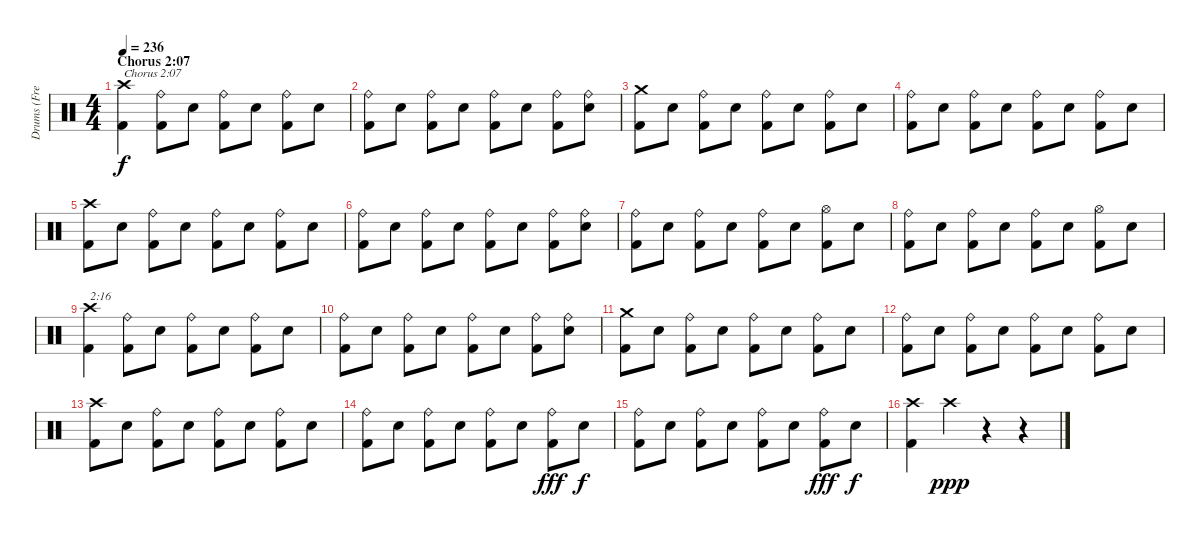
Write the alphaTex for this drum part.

\track ("Drums (Fred Estby)" "Drums (Fre") {instrument percussion}
\staff {score}
\articulation defaults
\ts (4 4)
\section ("" "Chorus 2:07")
\tempo 236
\clef neutral
\ks c
("Kick (hit) 2" "Crash high (hit)").4{txt "Chorus 2:07" dy f} ("Kick (hit) 2" "Ride (bell)").8 "Electric Snare (hit)".8 ("Kick (hit) 2" "Ride (bell)").8 "Electric Snare (hit)".8 ("Kick (hit) 2" "Ride (bell)").8 "Electric Snare (hit)".8 |
("Kick (hit) 2" "Ride (bell)").8 "Electric Snare (hit)".8 ("Kick (hit) 2" "Ride (bell)").8 "Electric Snare (hit)".8 ("Kick (hit) 2" "Ride (bell)").8 "Electric Snare (hit)".8 ("Kick (hit) 2" "Ride (bell)").8 ("Electric Snare (hit)" "Ride (bell)").8 |
("Kick (hit) 2" "Crash medium (hit)").8 "Electric Snare (hit)".8 ("Kick (hit) 2" "Ride (bell)").8 "Electric Snare (hit)".8 ("Kick (hit) 2" "Ride (bell)").8 "Electric Snare (hit)".8 ("Kick (hit) 2" "Ride (bell)").8 "Electric Snare (hit)".8 |
("Kick (hit) 2" "Ride (bell)").8 "Electric Snare (hit)".8 ("Kick (hit) 2" "Ride (bell)").8 "Electric Snare (hit)".8 ("Kick (hit) 2" "Ride (bell)").8 "Electric Snare (hit)".8 ("Kick (hit) 2" "Ride (bell)").8 "Electric Snare (hit)".8 |
("Kick (hit) 2" "Crash high (hit)").8 "Electric Snare (hit)".8 ("Kick (hit) 2" "Ride (bell)").8 "Electric Snare (hit)".8 ("Kick (hit) 2" "Ride (bell)").8 "Electric Snare (hit)".8 ("Kick (hit) 2" "Ride (bell)").8 "Electric Snare (hit)".8 |
("Kick (hit) 2" "Ride (bell)").8 "Electric Snare (hit)".8 ("Kick (hit) 2" "Ride (bell)").8 "Electric Snare (hit)".8 ("Kick (hit) 2" "Ride (bell)").8 "Electric Snare (hit)".8 ("Kick (hit) 2" "Ride (bell)").8 ("Electric Snare (hit)" "Ride (bell)").8 |
("Kick (hit) 2" "Ride (bell)").8 "Electric Snare (hit)".8 ("Kick (hit) 2" "Ride (bell)").8 "Electric Snare (hit)".8 ("Kick (hit) 2" "Ride (bell)").8 "Electric Snare (hit)".8 ("Kick (hit) 2" "Hi-Hat (open)").8 "Electric Snare (hit)".8 |
("Kick (hit) 2" "Ride (bell)").8 "Electric Snare (hit)".8 ("Kick (hit) 2" "Ride (bell)").8 "Electric Snare (hit)".8 ("Kick (hit) 2" "Ride (bell)").8 "Electric Snare (hit)".8 ("Kick (hit) 2" "Hi-Hat (open)").8 "Electric Snare (hit)".8 |
("Kick (hit) 2" "Crash high (hit)").4{txt "2:16"} ("Kick (hit) 2" "Ride (bell)").8 "Electric Snare (hit)".8 ("Kick (hit) 2" "Ride (bell)").8 "Electric Snare (hit)".8 ("Kick (hit) 2" "Ride (bell)").8 "Electric Snare (hit)".8 |
("Kick (hit) 2" "Ride (bell)").8 "Electric Snare (hit)".8 ("Kick (hit) 2" "Ride (bell)").8 "Electric Snare (hit)".8 ("Kick (hit) 2" "Ride (bell)").8 "Electric Snare (hit)".8 ("Kick (hit) 2" "Ride (bell)").8 ("Electric Snare (hit)" "Ride (bell)").8 |
("Kick (hit) 2" "Crash medium (hit)").8 "Electric Snare (hit)".8 ("Kick (hit) 2" "Ride (bell)").8 "Electric Snare (hit)".8 ("Kick (hit) 2" "Ride (bell)").8 "Electric Snare (hit)".8 ("Kick (hit) 2" "Ride (bell)").8 "Electric Snare (hit)".8 |
("Kick (hit) 2" "Ride (bell)").8 "Electric Snare (hit)".8 ("Kick (hit) 2" "Ride (bell)").8 "Electric Snare (hit)".8 ("Kick (hit) 2" "Ride (bell)").8 "Electric Snare (hit)".8 ("Kick (hit) 2" "Ride (bell)").8 "Electric Snare (hit)".8 |
("Kick (hit) 2" "Crash high (hit)").8 "Electric Snare (hit)".8 ("Kick (hit) 2" "Ride (bell)").8 "Electric Snare (hit)".8 ("Kick (hit) 2" "Ride (bell)").8 "Electric Snare (hit)".8 ("Kick (hit) 2" "Ride (bell)").8 "Electric Snare (hit)".8 |
("Kick (hit) 2" "Ride (bell)").8 "Electric Snare (hit)".8 ("Kick (hit) 2" "Ride (bell)").8 "Electric Snare (hit)".8 ("Kick (hit) 2" "Ride (bell)").8 "Electric Snare (hit)".8 ("Kick (hit) 2" "Ride (bell)").8{dy fff} "Electric Snare (hit)".8{dy f} |
("Kick (hit) 2" "Ride (bell)").8 "Electric Snare (hit)".8 ("Kick (hit) 2" "Ride (bell)").8 "Electric Snare (hit)".8 ("Kick (hit) 2" "Ride (bell)").8 "Electric Snare (hit)".8 ("Kick (hit) 2" "Ride (bell)").8{dy fff} "Electric Snare (hit)".8{dy f} |
("Kick (hit) 2" "Crash high (hit)").4 "Crash high (hit)".4{dy ppp} r.4 r.4
